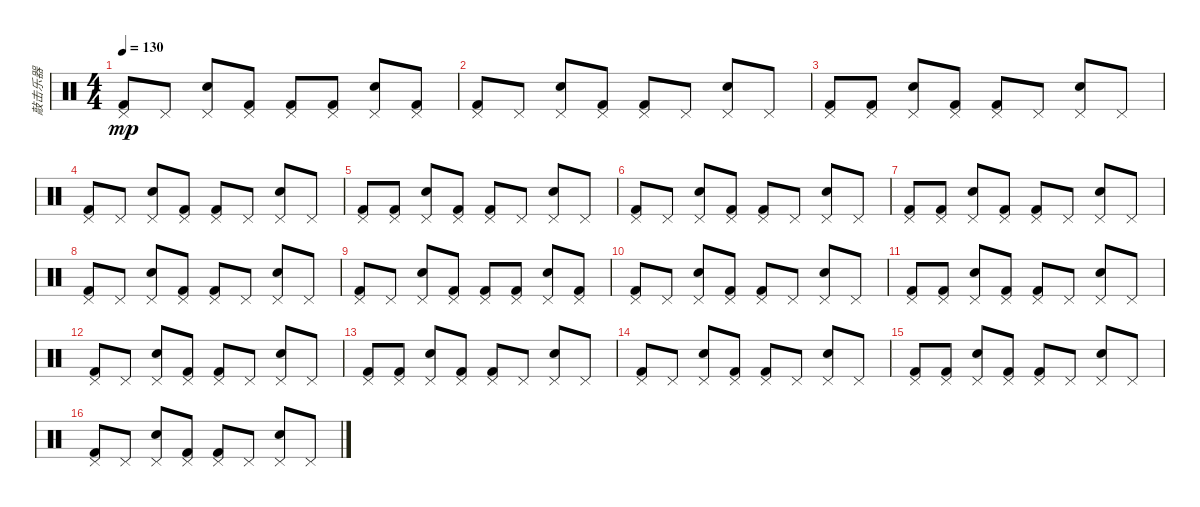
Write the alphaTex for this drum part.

\track ("敲击乐器" "敲击乐器") {instrument percussion}
\staff {score}
\articulation defaults
\ts (4 4)
\tempo 130
\clef neutral
\ks c
("Pedal Hi-Hat (hit)" "Kick (hit) 2").8{dy mp} "Pedal Hi-Hat (hit)".8 ("Pedal Hi-Hat (hit)" "Electric Snare (hit)").8 ("Pedal Hi-Hat (hit)" "Kick (hit) 2").8 ("Pedal Hi-Hat (hit)" "Kick (hit) 2").8 ("Pedal Hi-Hat (hit)" "Kick (hit) 2").8 ("Pedal Hi-Hat (hit)" "Electric Snare (hit)").8 ("Pedal Hi-Hat (hit)" "Kick (hit) 2").8 |
("Pedal Hi-Hat (hit)" "Kick (hit) 2").8 "Pedal Hi-Hat (hit)".8 ("Pedal Hi-Hat (hit)" "Electric Snare (hit)").8 ("Pedal Hi-Hat (hit)" "Kick (hit) 2").8 ("Pedal Hi-Hat (hit)" "Kick (hit) 2").8 "Pedal Hi-Hat (hit)".8 ("Pedal Hi-Hat (hit)" "Electric Snare (hit)").8 "Pedal Hi-Hat (hit)".8 |
("Pedal Hi-Hat (hit)" "Kick (hit) 2").8 ("Pedal Hi-Hat (hit)" "Kick (hit) 2").8 ("Pedal Hi-Hat (hit)" "Electric Snare (hit)").8 ("Pedal Hi-Hat (hit)" "Kick (hit) 2").8 ("Pedal Hi-Hat (hit)" "Kick (hit) 2").8 "Pedal Hi-Hat (hit)".8 ("Pedal Hi-Hat (hit)" "Electric Snare (hit)").8 "Pedal Hi-Hat (hit)".8 |
("Pedal Hi-Hat (hit)" "Kick (hit) 2").8 "Pedal Hi-Hat (hit)".8 ("Pedal Hi-Hat (hit)" "Electric Snare (hit)").8 ("Pedal Hi-Hat (hit)" "Kick (hit) 2").8 ("Pedal Hi-Hat (hit)" "Kick (hit) 2").8 "Pedal Hi-Hat (hit)".8 ("Pedal Hi-Hat (hit)" "Electric Snare (hit)").8 "Pedal Hi-Hat (hit)".8 |
("Pedal Hi-Hat (hit)" "Kick (hit) 2").8 ("Pedal Hi-Hat (hit)" "Kick (hit) 2").8 ("Pedal Hi-Hat (hit)" "Electric Snare (hit)").8 ("Pedal Hi-Hat (hit)" "Kick (hit) 2").8 ("Pedal Hi-Hat (hit)" "Kick (hit) 2").8 "Pedal Hi-Hat (hit)".8 ("Pedal Hi-Hat (hit)" "Electric Snare (hit)").8 "Pedal Hi-Hat (hit)".8 |
("Pedal Hi-Hat (hit)" "Kick (hit) 2").8 "Pedal Hi-Hat (hit)".8 ("Pedal Hi-Hat (hit)" "Electric Snare (hit)").8 ("Pedal Hi-Hat (hit)" "Kick (hit) 2").8 ("Pedal Hi-Hat (hit)" "Kick (hit) 2").8 "Pedal Hi-Hat (hit)".8 ("Pedal Hi-Hat (hit)" "Electric Snare (hit)").8 "Pedal Hi-Hat (hit)".8 |
("Pedal Hi-Hat (hit)" "Kick (hit) 2").8 ("Pedal Hi-Hat (hit)" "Kick (hit) 2").8 ("Pedal Hi-Hat (hit)" "Electric Snare (hit)").8 ("Pedal Hi-Hat (hit)" "Kick (hit) 2").8 ("Pedal Hi-Hat (hit)" "Kick (hit) 2").8 "Pedal Hi-Hat (hit)".8 ("Pedal Hi-Hat (hit)" "Electric Snare (hit)").8 "Pedal Hi-Hat (hit)".8 |
("Pedal Hi-Hat (hit)" "Kick (hit) 2").8 "Pedal Hi-Hat (hit)".8 ("Pedal Hi-Hat (hit)" "Electric Snare (hit)").8 ("Pedal Hi-Hat (hit)" "Kick (hit) 2").8 ("Pedal Hi-Hat (hit)" "Kick (hit) 2").8 "Pedal Hi-Hat (hit)".8 ("Pedal Hi-Hat (hit)" "Electric Snare (hit)").8 "Pedal Hi-Hat (hit)".8 |
("Pedal Hi-Hat (hit)" "Kick (hit) 2").8 "Pedal Hi-Hat (hit)".8 ("Pedal Hi-Hat (hit)" "Electric Snare (hit)").8 ("Pedal Hi-Hat (hit)" "Kick (hit) 2").8 ("Pedal Hi-Hat (hit)" "Kick (hit) 2").8 ("Pedal Hi-Hat (hit)" "Kick (hit) 2").8 ("Pedal Hi-Hat (hit)" "Electric Snare (hit)").8 ("Pedal Hi-Hat (hit)" "Kick (hit) 2").8 |
("Pedal Hi-Hat (hit)" "Kick (hit) 2").8 "Pedal Hi-Hat (hit)".8 ("Pedal Hi-Hat (hit)" "Electric Snare (hit)").8 ("Pedal Hi-Hat (hit)" "Kick (hit) 2").8 ("Pedal Hi-Hat (hit)" "Kick (hit) 2").8 "Pedal Hi-Hat (hit)".8 ("Pedal Hi-Hat (hit)" "Electric Snare (hit)").8 "Pedal Hi-Hat (hit)".8 |
("Pedal Hi-Hat (hit)" "Kick (hit) 2").8 ("Pedal Hi-Hat (hit)" "Kick (hit) 2").8 ("Pedal Hi-Hat (hit)" "Electric Snare (hit)").8 ("Pedal Hi-Hat (hit)" "Kick (hit) 2").8 ("Pedal Hi-Hat (hit)" "Kick (hit) 2").8 "Pedal Hi-Hat (hit)".8 ("Pedal Hi-Hat (hit)" "Electric Snare (hit)").8 "Pedal Hi-Hat (hit)".8 |
("Pedal Hi-Hat (hit)" "Kick (hit) 2").8 "Pedal Hi-Hat (hit)".8 ("Pedal Hi-Hat (hit)" "Electric Snare (hit)").8 ("Pedal Hi-Hat (hit)" "Kick (hit) 2").8 ("Pedal Hi-Hat (hit)" "Kick (hit) 2").8 "Pedal Hi-Hat (hit)".8 ("Pedal Hi-Hat (hit)" "Electric Snare (hit)").8 "Pedal Hi-Hat (hit)".8 |
("Pedal Hi-Hat (hit)" "Kick (hit) 2").8 ("Pedal Hi-Hat (hit)" "Kick (hit) 2").8 ("Pedal Hi-Hat (hit)" "Electric Snare (hit)").8 ("Pedal Hi-Hat (hit)" "Kick (hit) 2").8 ("Pedal Hi-Hat (hit)" "Kick (hit) 2").8 "Pedal Hi-Hat (hit)".8 ("Pedal Hi-Hat (hit)" "Electric Snare (hit)").8 "Pedal Hi-Hat (hit)".8 |
("Pedal Hi-Hat (hit)" "Kick (hit) 2").8 "Pedal Hi-Hat (hit)".8 ("Pedal Hi-Hat (hit)" "Electric Snare (hit)").8 ("Pedal Hi-Hat (hit)" "Kick (hit) 2").8 ("Pedal Hi-Hat (hit)" "Kick (hit) 2").8 "Pedal Hi-Hat (hit)".8 ("Pedal Hi-Hat (hit)" "Electric Snare (hit)").8 "Pedal Hi-Hat (hit)".8 |
("Pedal Hi-Hat (hit)" "Kick (hit) 2").8 ("Pedal Hi-Hat (hit)" "Kick (hit) 2").8 ("Pedal Hi-Hat (hit)" "Electric Snare (hit)").8 ("Pedal Hi-Hat (hit)" "Kick (hit) 2").8 ("Pedal Hi-Hat (hit)" "Kick (hit) 2").8 "Pedal Hi-Hat (hit)".8 ("Pedal Hi-Hat (hit)" "Electric Snare (hit)").8 "Pedal Hi-Hat (hit)".8 |
("Pedal Hi-Hat (hit)" "Kick (hit) 2").8 "Pedal Hi-Hat (hit)".8 ("Pedal Hi-Hat (hit)" "Electric Snare (hit)").8 ("Pedal Hi-Hat (hit)" "Kick (hit) 2").8 ("Pedal Hi-Hat (hit)" "Kick (hit) 2").8 "Pedal Hi-Hat (hit)".8 ("Pedal Hi-Hat (hit)" "Electric Snare (hit)").8 "Pedal Hi-Hat (hit)".8
